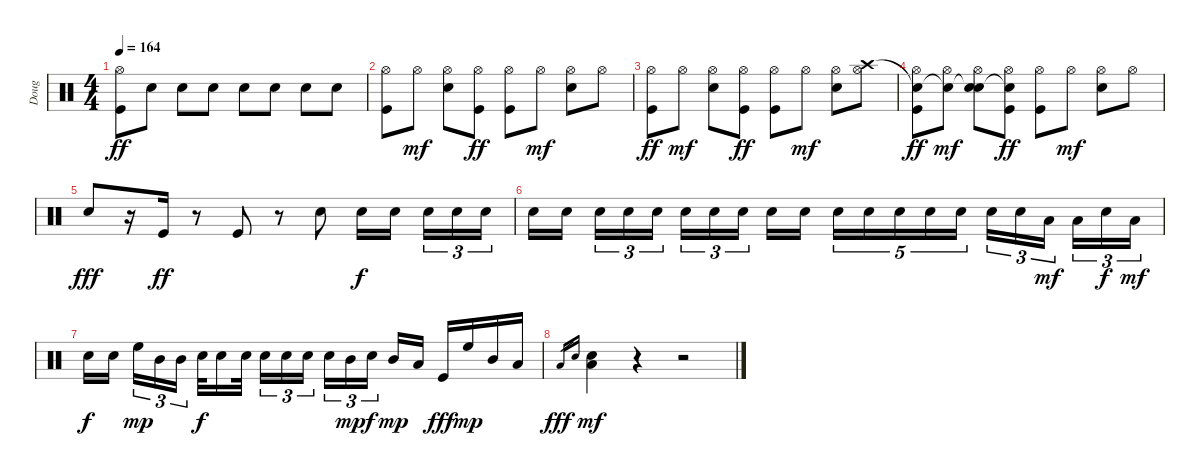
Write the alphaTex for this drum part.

\track ("Doug" "Doug") {instrument percussion}
\staff {score}
\articulation defaults
\ts (4 4)
\tempo 164
\clef neutral
\ks c
("Hi-Hat (open)" "Kick (hit)").8{dy ff} "Electric Snare (hit)".8 "Electric Snare (hit)".8 "Electric Snare (hit)".8 "Electric Snare (hit)".8 "Electric Snare (hit)".8 "Electric Snare (hit)".8 "Electric Snare (hit)".8 |
("Hi-Hat (open)" "Kick (hit)").8 "Hi-Hat (open)".8{dy mf} ("Hi-Hat (open)" "Electric Snare (hit)").8 ("Hi-Hat (open)" "Kick (hit)").8{dy ff} ("Hi-Hat (open)" "Kick (hit)").8 "Hi-Hat (open)".8{dy mf} ("Hi-Hat (open)" "Electric Snare (hit)").8 "Hi-Hat (open)".8 |
("Hi-Hat (open)" "Kick (hit)").8{dy ff} "Hi-Hat (open)".8{dy mf} ("Hi-Hat (open)" "Electric Snare (hit)").8 ("Hi-Hat (open)" "Kick (hit)").8{dy ff} ("Hi-Hat (open)" "Kick (hit)").8 "Hi-Hat (open)".8{dy mf} ("Hi-Hat (open)" "Electric Snare (hit)").8 ("Crash high (hit)" "Hi-Hat (open)").8 |
("Snare (hit)"{t} "Hi-Hat (open)" "Kick (hit)").8{dy ff} ("Snare (hit)"{t} "Hi-Hat (open)").8{dy mf} ("Snare (hit)"{t} "Hi-Hat (open)" "Electric Snare (hit)").8 ("Snare (hit)"{t} "Hi-Hat (open)" "Kick (hit)").8{dy ff} ("Hi-Hat (open)" "Kick (hit)").8 "Hi-Hat (open)".8{dy mf} ("Hi-Hat (open)" "Electric Snare (hit)").8 "Hi-Hat (open)".8 |
"Electric Snare (hit)".8{dy fff} r.16 "Kick (hit)".16{dy ff} r.8 "Kick (hit)".8 r.8 "Electric Snare (hit)".8 "Electric Snare (hit)".16{dy f} "Electric Snare (hit)".16{beam splitsecondary} "Electric Snare (hit)".16{tu (3 2)} "Electric Snare (hit)".16{tu (3 2)} "Electric Snare (hit)".16{tu (3 2)} |
"Electric Snare (hit)".16 "Electric Snare (hit)".16{beam splitsecondary} "Electric Snare (hit)".16{tu (3 2)} "Electric Snare (hit)".16{tu (3 2)} "Electric Snare (hit)".16{tu (3 2)} "Electric Snare (hit)".16{tu (3 2)} "Electric Snare (hit)".16{tu (3 2)} "Electric Snare (hit)".16{tu (3 2) beam splitsecondary} "Electric Snare (hit)".16 "Electric Snare (hit)".16 "Electric Snare (hit)".16{tu (5 4)} "Electric Snare (hit)".16{tu (5 4)} "Electric Snare (hit)".16{tu (5 4)} "Electric Snare (hit)".16{tu (5 4)} "Electric Snare (hit)".16{tu (5 4)} "Electric Snare (hit)".16{tu (3 2)} "Electric Snare (hit)".16{tu (3 2)} "Low Tom (hit)".16{tu (3 2) dy mf beam splitsecondary} "Low Tom (hit)".16{tu (3 2)} "Electric Snare (hit)".16{tu (3 2) dy f} "Low Tom (hit)".16{tu (3 2) dy mf} |
"Electric Snare (hit)".16{dy f} "Electric Snare (hit)".16{beam splitsecondary} "High Floor Tom (hit)".16{tu (3 2) dy mp} "Mid Tom (hit)".16{tu (3 2)} "Mid Tom (hit)".16{tu (3 2)} "Electric Snare (hit)".32{dy f} "Electric Snare (hit)".16 "Electric Snare (hit)".32{beam splitsecondary} "Electric Snare (hit)".16{tu (3 2)} "Electric Snare (hit)".16{tu (3 2)} "Electric Snare (hit)".16{tu (3 2)} "Electric Snare (hit)".16{tu (3 2)} "Mid Tom (hit)".16{tu (3 2) dy mp} "Electric Snare (hit)".16{tu (3 2) dy f beam splitsecondary} "Mid Tom (hit)".16{dy mp} "Low Tom (hit)".16 "Kick (hit)".16{dy fff} "High Floor Tom (hit)".16{dy mp} "Mid Tom (hit)".16 "Low Tom (hit)".16 |
"Low Tom (hit)".16{gr dy fff} "Electric Snare (hit)".16{gr} ("Low Tom (hit)" "Electric Snare (hit)").4{dy mf} r.4 r.2
